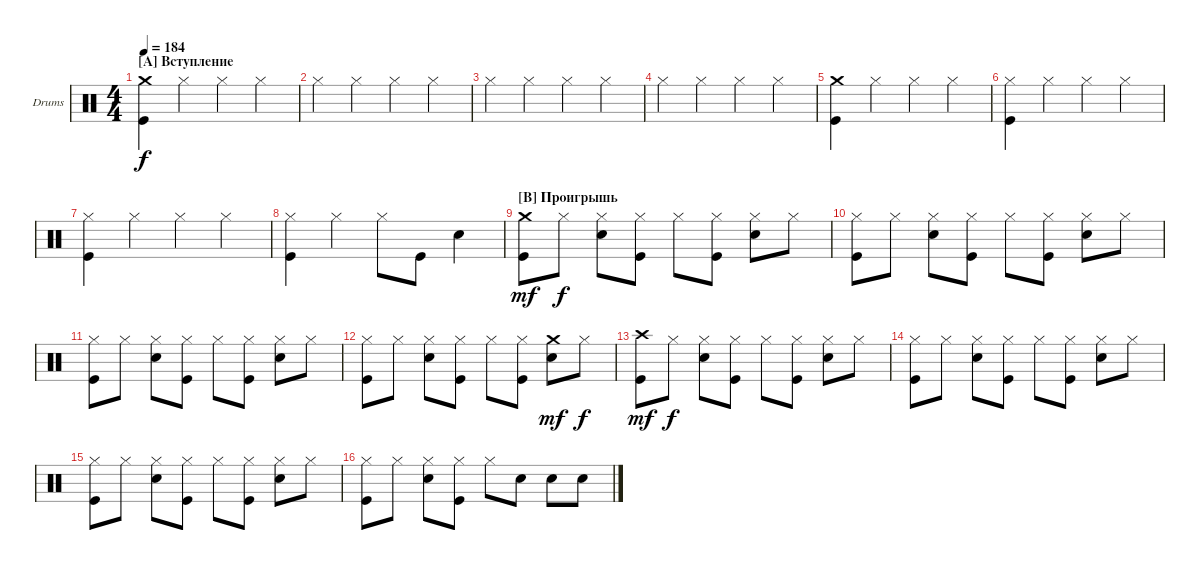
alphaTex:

\bracketExtendMode groupsimilarinstruments
\firstSystemTrackNameOrientation horizontal
\otherSystemsTrackNameOrientation horizontal
\track ("Drumkit" "Drums") {instrument percussion}
\staff {score}
\articulation defaults
\ts (4 4)
\section ("A" "Вступление")
\tempo 184
\clef neutral
\ks c
("Kick (hit)" "Crash medium (hit)").4{dy f} "Hi-Hat (closed)".4 "Hi-Hat (closed)".4 "Hi-Hat (closed)".4 |
"Hi-Hat (closed)".4 "Hi-Hat (closed)".4 "Hi-Hat (closed)".4 "Hi-Hat (closed)".4 |
"Hi-Hat (closed)".4 "Hi-Hat (closed)".4 "Hi-Hat (closed)".4 "Hi-Hat (closed)".4 |
"Hi-Hat (closed)".4 "Hi-Hat (closed)".4 "Hi-Hat (closed)".4 "Hi-Hat (closed)".4 |
("Kick (hit)" "Crash medium (hit)").4 "Hi-Hat (closed)".4 "Hi-Hat (closed)".4 "Hi-Hat (closed)".4 |
("Kick (hit)" "Hi-Hat (closed)").4 "Hi-Hat (closed)".4 "Hi-Hat (closed)".4 "Hi-Hat (closed)".4 |
("Kick (hit)" "Hi-Hat (closed)").4 "Hi-Hat (closed)".4 "Hi-Hat (closed)".4 "Hi-Hat (closed)".4 |
("Kick (hit)" "Hi-Hat (closed)").4 "Hi-Hat (closed)".4 "Hi-Hat (closed)".8 "Kick (hit)".8 "Snare (hit) 2".4 |
\section ("B" "Проигрышь")
("Crash medium (hit)" "Kick (hit)").8{dy mf} "Hi-Hat (closed)".8{dy f} ("Hi-Hat (closed)" "Snare (hit) 2").8 ("Hi-Hat (closed)" "Kick (hit)").8 "Hi-Hat (closed)".8 ("Hi-Hat (closed)" "Kick (hit)").8 ("Hi-Hat (closed)" "Snare (hit) 2").8 "Hi-Hat (closed)".8 |
("Hi-Hat (closed)" "Kick (hit)").8 "Hi-Hat (closed)".8 ("Hi-Hat (closed)" "Snare (hit) 2").8 ("Hi-Hat (closed)" "Kick (hit)").8 "Hi-Hat (closed)".8 ("Hi-Hat (closed)" "Kick (hit)").8 ("Hi-Hat (closed)" "Snare (hit) 2").8 "Hi-Hat (closed)".8 |
("Hi-Hat (closed)" "Kick (hit)").8 "Hi-Hat (closed)".8 ("Hi-Hat (closed)" "Snare (hit) 2").8 ("Hi-Hat (closed)" "Kick (hit)").8 "Hi-Hat (closed)".8 ("Hi-Hat (closed)" "Kick (hit)").8 ("Hi-Hat (closed)" "Snare (hit) 2").8 "Hi-Hat (closed)".8 |
("Hi-Hat (closed)" "Kick (hit)").8 "Hi-Hat (closed)".8 ("Hi-Hat (closed)" "Snare (hit) 2").8 ("Hi-Hat (closed)" "Kick (hit)").8 "Hi-Hat (closed)".8 ("Hi-Hat (closed)" "Kick (hit)").8 ("Crash medium (hit)" "Snare (hit) 2").8{dy mf} "Hi-Hat (closed)".8{dy f} |
("Crash high (hit)" "Kick (hit)").8{dy mf} "Hi-Hat (closed)".8{dy f} ("Hi-Hat (closed)" "Snare (hit) 2").8 ("Hi-Hat (closed)" "Kick (hit)").8 "Hi-Hat (closed)".8 ("Hi-Hat (closed)" "Kick (hit)").8 ("Hi-Hat (closed)" "Snare (hit) 2").8 "Hi-Hat (closed)".8 |
("Hi-Hat (closed)" "Kick (hit)").8 "Hi-Hat (closed)".8 ("Hi-Hat (closed)" "Snare (hit) 2").8 ("Hi-Hat (closed)" "Kick (hit)").8 "Hi-Hat (closed)".8 ("Hi-Hat (closed)" "Kick (hit)").8 ("Hi-Hat (closed)" "Snare (hit) 2").8 "Hi-Hat (closed)".8 |
("Hi-Hat (closed)" "Kick (hit)").8 "Hi-Hat (closed)".8 ("Hi-Hat (closed)" "Snare (hit) 2").8 ("Hi-Hat (closed)" "Kick (hit)").8 "Hi-Hat (closed)".8 ("Hi-Hat (closed)" "Kick (hit)").8 ("Hi-Hat (closed)" "Snare (hit) 2").8 "Hi-Hat (closed)".8 |
("Hi-Hat (closed)" "Kick (hit)").8 "Hi-Hat (closed)".8 ("Hi-Hat (closed)" "Snare (hit) 2").8 ("Hi-Hat (closed)" "Kick (hit)").8 "Hi-Hat (closed)".8 "Snare (hit) 2".8 "Snare (hit) 2".8 "Snare (hit) 2".8
